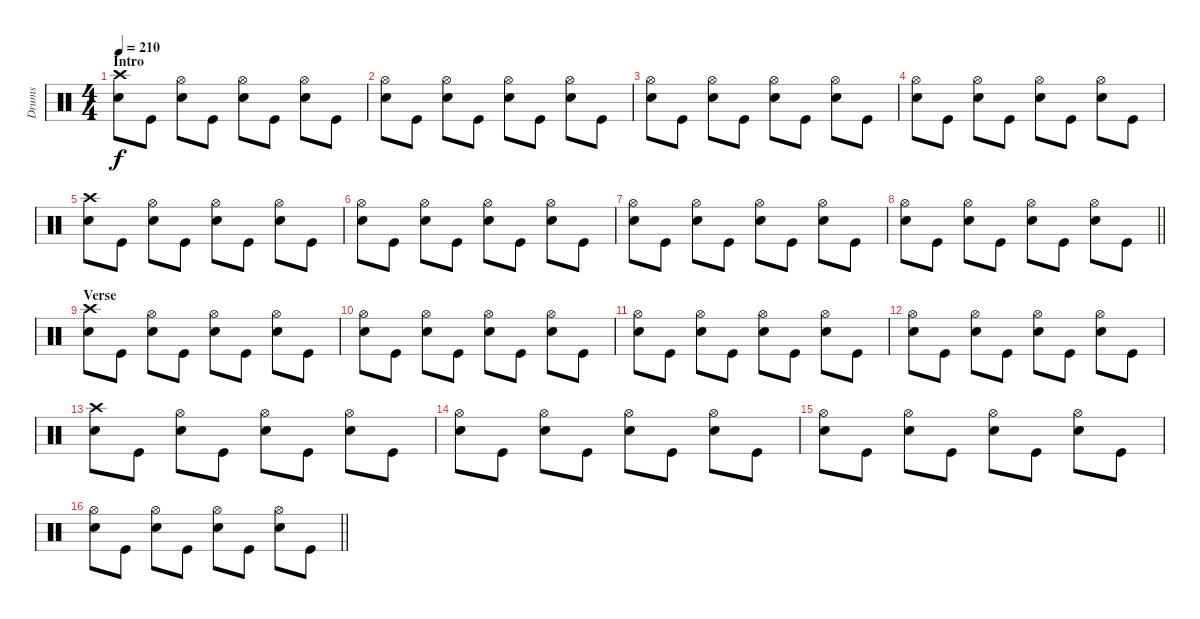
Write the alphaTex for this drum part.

\track ("Drums" "Drums") {instrument percussion}
\staff {score}
\articulation defaults
\ts (4 4)
\section ("" "Intro")
\tempo 210
\clef neutral
\ks c
("Crash high (hit)" "Snare (hit) 2").8{dy f} "Kick (hit)".8 ("Hi-Hat (open)" "Snare (hit) 2").8 "Kick (hit)".8 ("Hi-Hat (open)" "Snare (hit) 2").8 "Kick (hit)".8 ("Hi-Hat (open)" "Snare (hit) 2").8 "Kick (hit)".8 |
("Hi-Hat (open)" "Snare (hit) 2").8 "Kick (hit)".8 ("Hi-Hat (open)" "Snare (hit) 2").8 "Kick (hit)".8 ("Hi-Hat (open)" "Snare (hit) 2").8 "Kick (hit)".8 ("Hi-Hat (open)" "Snare (hit) 2").8 "Kick (hit)".8 |
("Hi-Hat (open)" "Snare (hit) 2").8 "Kick (hit)".8 ("Hi-Hat (open)" "Snare (hit) 2").8 "Kick (hit)".8 ("Hi-Hat (open)" "Snare (hit) 2").8 "Kick (hit)".8 ("Hi-Hat (open)" "Snare (hit) 2").8 "Kick (hit)".8 |
("Hi-Hat (open)" "Snare (hit) 2").8 "Kick (hit)".8 ("Hi-Hat (open)" "Snare (hit) 2").8 "Kick (hit)".8 ("Hi-Hat (open)" "Snare (hit) 2").8 "Kick (hit)".8 ("Hi-Hat (open)" "Snare (hit) 2").8 "Kick (hit)".8 |
("Crash high (hit)" "Snare (hit) 2").8 "Kick (hit)".8 ("Hi-Hat (open)" "Snare (hit) 2").8 "Kick (hit)".8 ("Hi-Hat (open)" "Snare (hit) 2").8 "Kick (hit)".8 ("Hi-Hat (open)" "Snare (hit) 2").8 "Kick (hit)".8 |
("Hi-Hat (open)" "Snare (hit) 2").8 "Kick (hit)".8 ("Hi-Hat (open)" "Snare (hit) 2").8 "Kick (hit)".8 ("Hi-Hat (open)" "Snare (hit) 2").8 "Kick (hit)".8 ("Hi-Hat (open)" "Snare (hit) 2").8 "Kick (hit)".8 |
("Hi-Hat (open)" "Snare (hit) 2").8 "Kick (hit)".8 ("Hi-Hat (open)" "Snare (hit) 2").8 "Kick (hit)".8 ("Hi-Hat (open)" "Snare (hit) 2").8 "Kick (hit)".8 ("Hi-Hat (open)" "Snare (hit) 2").8 "Kick (hit)".8 |
\barLineRight lightlight
("Hi-Hat (open)" "Snare (hit) 2").8 "Kick (hit)".8 ("Hi-Hat (open)" "Snare (hit) 2").8 "Kick (hit)".8 ("Hi-Hat (open)" "Snare (hit) 2").8 "Kick (hit)".8 ("Hi-Hat (open)" "Snare (hit) 2").8 "Kick (hit)".8 |
\section ("" "Verse")
("Crash high (hit)" "Snare (hit) 2").8 "Kick (hit)".8 ("Hi-Hat (open)" "Snare (hit) 2").8 "Kick (hit)".8 ("Hi-Hat (open)" "Snare (hit) 2").8 "Kick (hit)".8 ("Hi-Hat (open)" "Snare (hit) 2").8 "Kick (hit)".8 |
("Hi-Hat (open)" "Snare (hit) 2").8 "Kick (hit)".8 ("Hi-Hat (open)" "Snare (hit) 2").8 "Kick (hit)".8 ("Hi-Hat (open)" "Snare (hit) 2").8 "Kick (hit)".8 ("Hi-Hat (open)" "Snare (hit) 2").8 "Kick (hit)".8 |
("Hi-Hat (open)" "Snare (hit) 2").8 "Kick (hit)".8 ("Hi-Hat (open)" "Snare (hit) 2").8 "Kick (hit)".8 ("Hi-Hat (open)" "Snare (hit) 2").8 "Kick (hit)".8 ("Hi-Hat (open)" "Snare (hit) 2").8 "Kick (hit)".8 |
("Hi-Hat (open)" "Snare (hit) 2").8 "Kick (hit)".8 ("Hi-Hat (open)" "Snare (hit) 2").8 "Kick (hit)".8 ("Hi-Hat (open)" "Snare (hit) 2").8 "Kick (hit)".8 ("Hi-Hat (open)" "Snare (hit) 2").8 "Kick (hit)".8 |
("Crash high (hit)" "Snare (hit) 2").8 "Kick (hit)".8 ("Hi-Hat (open)" "Snare (hit) 2").8 "Kick (hit)".8 ("Hi-Hat (open)" "Snare (hit) 2").8 "Kick (hit)".8 ("Hi-Hat (open)" "Snare (hit) 2").8 "Kick (hit)".8 |
("Hi-Hat (open)" "Snare (hit) 2").8 "Kick (hit)".8 ("Hi-Hat (open)" "Snare (hit) 2").8 "Kick (hit)".8 ("Hi-Hat (open)" "Snare (hit) 2").8 "Kick (hit)".8 ("Hi-Hat (open)" "Snare (hit) 2").8 "Kick (hit)".8 |
("Hi-Hat (open)" "Snare (hit) 2").8 "Kick (hit)".8 ("Hi-Hat (open)" "Snare (hit) 2").8 "Kick (hit)".8 ("Hi-Hat (open)" "Snare (hit) 2").8 "Kick (hit)".8 ("Hi-Hat (open)" "Snare (hit) 2").8 "Kick (hit)".8 |
\barLineRight lightlight
("Hi-Hat (open)" "Snare (hit) 2").8 "Kick (hit)".8 ("Hi-Hat (open)" "Snare (hit) 2").8 "Kick (hit)".8 ("Hi-Hat (open)" "Snare (hit) 2").8 "Kick (hit)".8 ("Hi-Hat (open)" "Snare (hit) 2").8 "Kick (hit)".8
